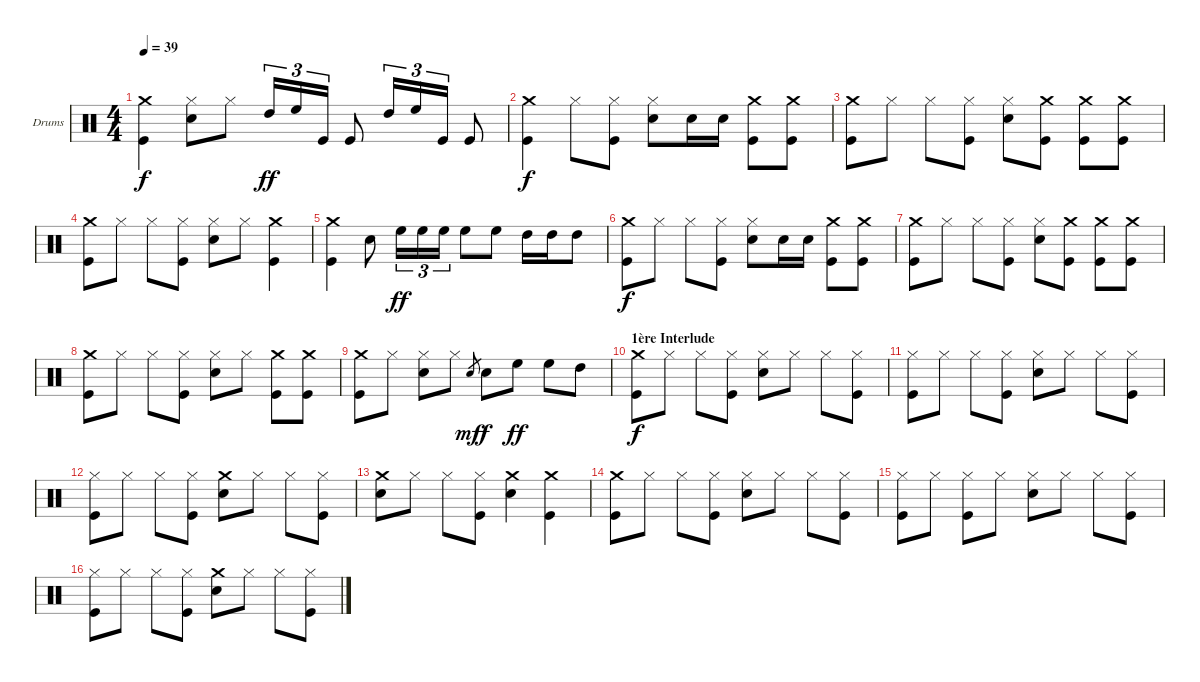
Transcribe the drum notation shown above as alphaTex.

\bracketExtendMode groupsimilarinstruments
\firstSystemTrackNameOrientation horizontal
\otherSystemsTrackNameOrientation horizontal
\track ("Drumkit" "Drums") {instrument percussion}
\staff {score}
\articulation defaults
\ts (4 4)
\tempo 39
\clef neutral
\ks c
("Crash medium (hit)" "Kick (hit)").4{dy f} ("Hi-Hat (closed)" "Snare (hit) 2").8 "Hi-Hat (closed)".8 "High Tom (hit)".16{tu (3 2) dy ff} "High Floor Tom (hit)".16{tu (3 2)} "Kick (hit)".16{tu (3 2)} "Kick (hit)".8 "High Tom (hit)".16{tu (3 2)} "High Floor Tom (hit)".16{tu (3 2)} "Kick (hit)".16{tu (3 2)} "Kick (hit)".8 |
("Crash medium (hit)" "Kick (hit)").4{dy f} "Hi-Hat (closed)".8 ("Hi-Hat (closed)" "Kick (hit)").8 ("Hi-Hat (closed)" "Snare (hit) 2").8 "Snare (hit) 2".16 "Snare (hit) 2".16 ("Crash medium (hit)" "Kick (hit)").8 ("Crash medium (hit)" "Kick (hit)").8 |
("Crash medium (hit)" "Kick (hit)").8 "Hi-Hat (closed)".8 "Hi-Hat (closed)".8 ("Hi-Hat (closed)" "Kick (hit)").8 ("Hi-Hat (closed)" "Snare (hit) 2").8 ("Crash medium (hit)" "Kick (hit)").8 ("Crash medium (hit)" "Kick (hit)").8 ("Crash medium (hit)" "Kick (hit)").8 |
("Crash medium (hit)" "Kick (hit)").8 "Hi-Hat (closed)".8 "Hi-Hat (closed)".8 ("Hi-Hat (closed)" "Kick (hit)").8 ("Hi-Hat (closed)" "Snare (hit) 2").8 "Hi-Hat (closed)".8 ("Crash medium (hit)" "Kick (hit)").4 |
("Crash medium (hit)" "Kick (hit)").4 "Snare (hit) 2".8 "High Floor Tom (hit)".16{tu (3 2) dy ff} "High Floor Tom (hit)".16{tu (3 2)} "High Floor Tom (hit)".16{tu (3 2)} "High Floor Tom (hit)".8 "High Floor Tom (hit)".8 "High Tom (hit)".16 "High Tom (hit)".16 "High Tom (hit)".8 |
("Crash medium (hit)" "Kick (hit)").8{dy f} "Hi-Hat (closed)".8 "Hi-Hat (closed)".8 ("Hi-Hat (closed)" "Kick (hit)").8 ("Hi-Hat (closed)" "Snare (hit) 2").8 "Snare (hit) 2".16 "Snare (hit) 2".16 ("Crash medium (hit)" "Kick (hit)").8 ("Crash medium (hit)" "Kick (hit)").8 |
("Crash medium (hit)" "Kick (hit)").8 "Hi-Hat (closed)".8 "Hi-Hat (closed)".8 ("Hi-Hat (closed)" "Kick (hit)").8 ("Hi-Hat (closed)" "Snare (hit) 2").8 ("Crash medium (hit)" "Kick (hit)").8 ("Crash medium (hit)" "Kick (hit)").8 ("Crash medium (hit)" "Kick (hit)").8 |
("Crash medium (hit)" "Kick (hit)").8 "Hi-Hat (closed)".8 "Hi-Hat (closed)".8 ("Hi-Hat (closed)" "Kick (hit)").8 ("Hi-Hat (closed)" "Snare (hit) 2").8 "Hi-Hat (closed)".8 ("Crash medium (hit)" "Kick (hit)").8 ("Crash medium (hit)" "Kick (hit)").8 |
("Crash medium (hit)" "Kick (hit)").8 "Hi-Hat (closed)".8 ("Hi-Hat (closed)" "Snare (hit) 2").8 "Hi-Hat (closed)".8 "Snare (hit) 2".8{gr dy mf} "Snare (hit) 2".8{dy f} "High Floor Tom (hit)".8{dy ff} "High Floor Tom (hit)".8 "High Tom (hit)".8 |
\section ("" "1ère Interlude")
("Crash medium (hit)" "Kick (hit)").8{dy f} "Hi-Hat (closed)".8 "Hi-Hat (closed)".8 ("Hi-Hat (closed)" "Kick (hit)").8 ("Hi-Hat (closed)" "Snare (hit) 2").8 "Hi-Hat (closed)".8 "Hi-Hat (closed)".8 ("Hi-Hat (closed)" "Kick (hit)").8 |
("Hi-Hat (closed)" "Kick (hit)").8 "Hi-Hat (closed)".8 "Hi-Hat (closed)".8 ("Hi-Hat (closed)" "Kick (hit)").8 ("Hi-Hat (closed)" "Snare (hit) 2").8 "Hi-Hat (closed)".8 "Hi-Hat (closed)".8 ("Hi-Hat (closed)" "Kick (hit)").8 |
("Hi-Hat (closed)" "Kick (hit)").8 "Hi-Hat (closed)".8 "Hi-Hat (closed)".8 ("Hi-Hat (closed)" "Kick (hit)").8 ("Crash medium (hit)" "Snare (hit) 2").8 "Hi-Hat (closed)".8 "Hi-Hat (closed)".8 ("Hi-Hat (closed)" "Kick (hit)").8 |
("Crash medium (hit)" "Snare (hit) 2").8 "Hi-Hat (closed)".8 "Hi-Hat (closed)".8 ("Hi-Hat (closed)" "Kick (hit)").8 ("Crash medium (hit)" "Snare (hit) 2").4 ("Crash medium (hit)" "Kick (hit)").4 |
("Crash medium (hit)" "Kick (hit)").8 "Hi-Hat (closed)".8 "Hi-Hat (closed)".8 ("Hi-Hat (closed)" "Kick (hit)").8 ("Hi-Hat (closed)" "Snare (hit) 2").8 "Hi-Hat (closed)".8 "Hi-Hat (closed)".8 ("Hi-Hat (closed)" "Kick (hit)").8 |
("Hi-Hat (closed)" "Kick (hit)").8 "Hi-Hat (closed)".8 ("Hi-Hat (closed)" "Kick (hit)").8 "Hi-Hat (closed)".8 ("Hi-Hat (closed)" "Snare (hit) 2").8 "Hi-Hat (closed)".8 "Hi-Hat (closed)".8 ("Hi-Hat (closed)" "Kick (hit)").8 |
("Hi-Hat (closed)" "Kick (hit)").8 "Hi-Hat (closed)".8 "Hi-Hat (closed)".8 ("Hi-Hat (closed)" "Kick (hit)").8 ("Crash medium (hit)" "Snare (hit) 2").8 "Hi-Hat (closed)".8 "Hi-Hat (closed)".8 ("Hi-Hat (closed)" "Kick (hit)").8
